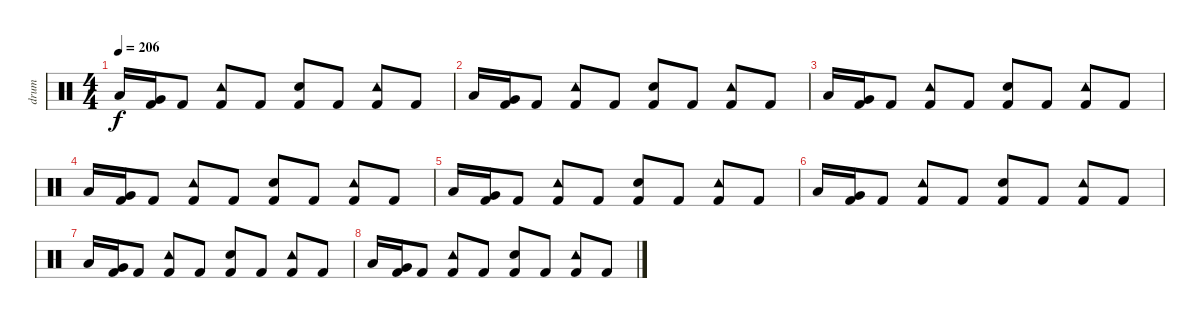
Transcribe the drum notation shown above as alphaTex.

\track ("drum" "drum") {instrument percussion}
\staff {score}
\articulation defaults
\ts (4 4)
\tempo 206
\clef neutral
\ks c "Low Tom (hit)".16{dy f}
("Very Low Tom (hit)" "Kick (hit) 2").16 "Kick (hit) 2".8 ("Tambourine (hit)" "Kick (hit) 2").8 "Kick (hit) 2".8 ("Electric Snare (hit)" "Kick (hit) 2").8 "Kick (hit) 2".8 ("Tambourine (hit)" "Kick (hit) 2").8 "Kick (hit) 2".8 |
"Low Tom (hit)".16 ("Very Low Tom (hit)" "Kick (hit) 2").16 "Kick (hit) 2".8 ("Tambourine (hit)" "Kick (hit) 2").8 "Kick (hit) 2".8 ("Electric Snare (hit)" "Kick (hit) 2").8 "Kick (hit) 2".8 ("Tambourine (hit)" "Kick (hit) 2").8 "Kick (hit) 2".8 |
"Low Tom (hit)".16 ("Very Low Tom (hit)" "Kick (hit) 2").16 "Kick (hit) 2".8 ("Tambourine (hit)" "Kick (hit) 2").8 "Kick (hit) 2".8 ("Electric Snare (hit)" "Kick (hit) 2").8 "Kick (hit) 2".8 ("Tambourine (hit)" "Kick (hit) 2").8 "Kick (hit) 2".8 |
"Low Tom (hit)".16 ("Very Low Tom (hit)" "Kick (hit) 2").16 "Kick (hit) 2".8 ("Tambourine (hit)" "Kick (hit) 2").8 "Kick (hit) 2".8 ("Electric Snare (hit)" "Kick (hit) 2").8 "Kick (hit) 2".8 ("Tambourine (hit)" "Kick (hit) 2").8 "Kick (hit) 2".8 |
"Low Tom (hit)".16 ("Very Low Tom (hit)" "Kick (hit) 2").16 "Kick (hit) 2".8 ("Tambourine (hit)" "Kick (hit) 2").8 "Kick (hit) 2".8 ("Electric Snare (hit)" "Kick (hit) 2").8 "Kick (hit) 2".8 ("Tambourine (hit)" "Kick (hit) 2").8 "Kick (hit) 2".8 |
"Low Tom (hit)".16 ("Very Low Tom (hit)" "Kick (hit) 2").16 "Kick (hit) 2".8 ("Tambourine (hit)" "Kick (hit) 2").8 "Kick (hit) 2".8 ("Electric Snare (hit)" "Kick (hit) 2").8 "Kick (hit) 2".8 ("Tambourine (hit)" "Kick (hit) 2").8 "Kick (hit) 2".8 |
"Low Tom (hit)".16 ("Very Low Tom (hit)" "Kick (hit) 2").16 "Kick (hit) 2".8 ("Tambourine (hit)" "Kick (hit) 2").8 "Kick (hit) 2".8 ("Electric Snare (hit)" "Kick (hit) 2").8 "Kick (hit) 2".8 ("Tambourine (hit)" "Kick (hit) 2").8 "Kick (hit) 2".8 |
"Low Tom (hit)".16 ("Very Low Tom (hit)" "Kick (hit) 2").16 "Kick (hit) 2".8 ("Tambourine (hit)" "Kick (hit) 2").8 "Kick (hit) 2".8 ("Electric Snare (hit)" "Kick (hit) 2").8 "Kick (hit) 2".8 ("Tambourine (hit)" "Kick (hit) 2").8 "Kick (hit) 2".8
